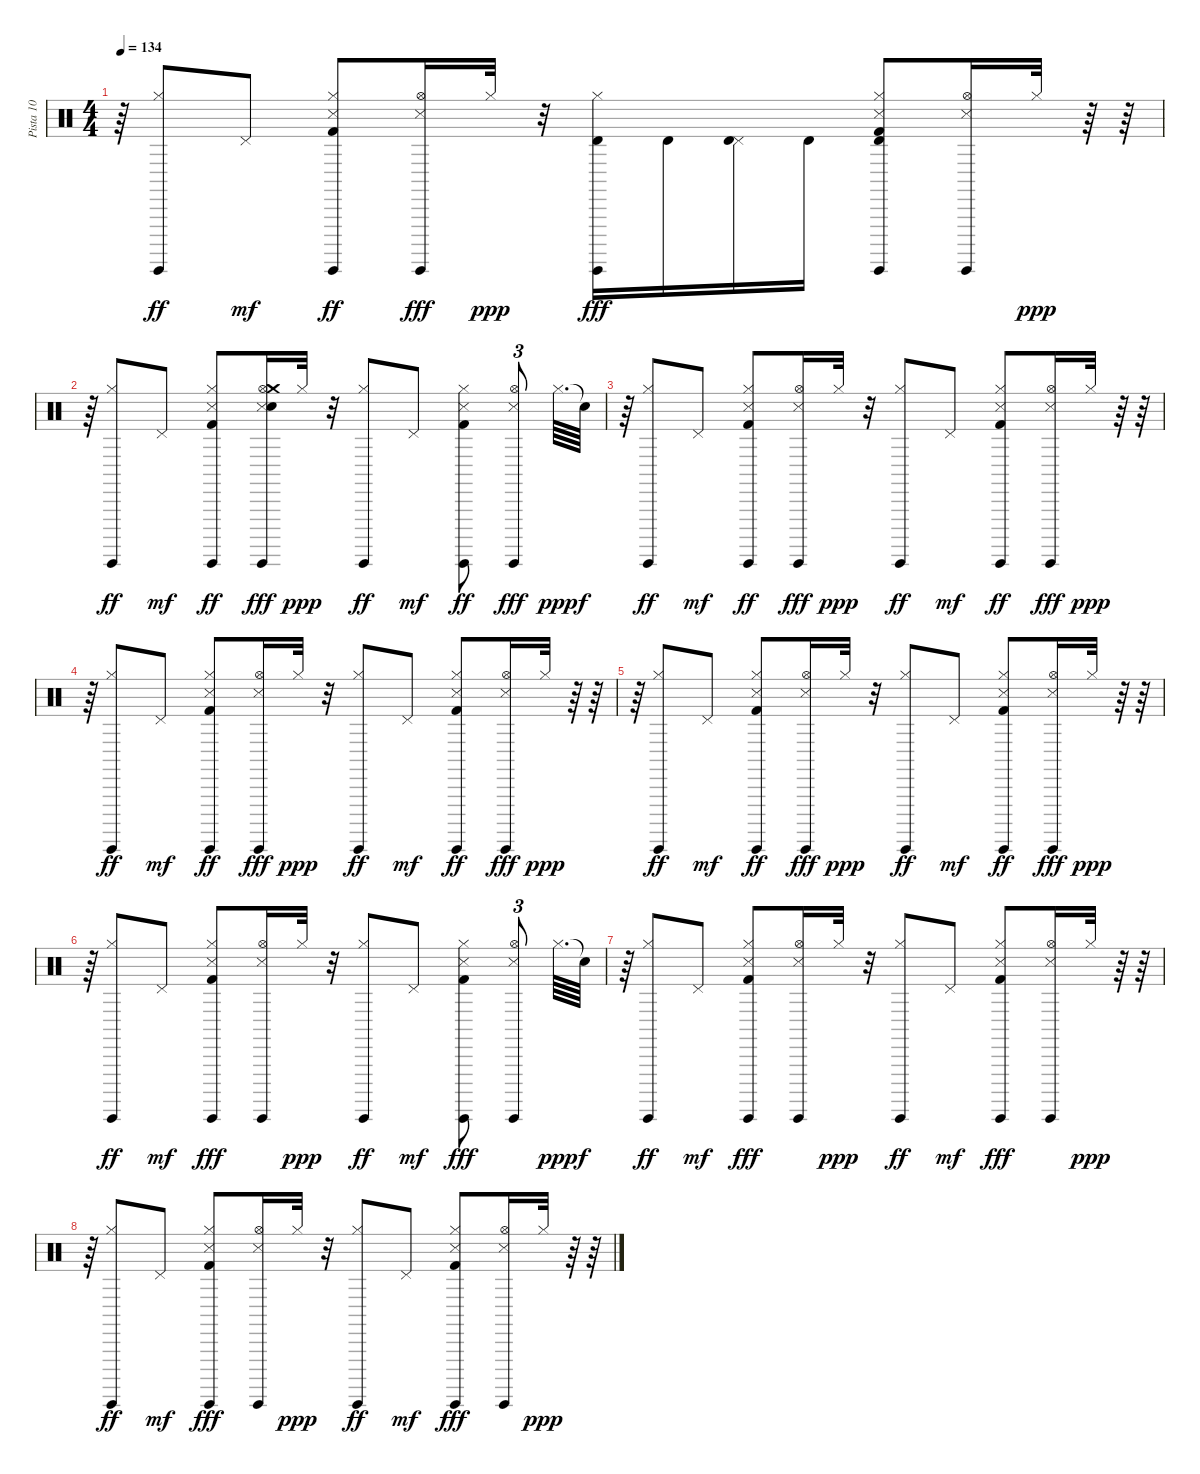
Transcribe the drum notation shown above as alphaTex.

\track ("Pista 10" "Pista 10") {instrument percussion}
\staff {score}
\articulation defaults
\ts (4 4)
\tempo 134
\clef neutral
\ks c
r.64{dy ppp} ("Hi-Hat (closed)" "Guiro (hit)").8{dy ff} "Pedal Hi-Hat (hit)".8{dy mf} ("Hi-Hat (closed)" "Guiro (hit)" "Snare (side stick) 3" "Kick (hit) 2").8{dy ff} ("Hi-Hat (open)" "Guiro (hit)" "Snare (side stick) 3").16{dy fff} "Hi-Hat (closed)".32{dy ppp} r.32 ("Hi-Hat (closed)" "Guiro (hit)" "Timbale high (hit)").16{dy fff} "Timbale high (hit)".16 ("Pedal Hi-Hat (hit)" "Timbale high (hit)").16 "Timbale high (hit)".16 ("Hi-Hat (closed)" "Guiro (hit)" "Snare (side stick) 3" "Kick (hit) 2" "Timbale high (hit)").8 ("Hi-Hat (open)" "Guiro (hit)" "Snare (side stick) 3").16 "Hi-Hat (closed)".32{dy ppp} r.64 r.64 |
r.64 ("Guiro (hit)" "Hi-Hat (closed)").8{dy ff} "Pedal Hi-Hat (hit)".8{dy mf} ("Guiro (hit)" "Hi-Hat (closed)" "Snare (side stick) 3" "Kick (hit) 2").8{dy ff} ("Guiro (hit)" "Hi-Hat (open)" "Snare (side stick) 3" "Electric Snare (hit)" "Crash medium (hit)").16{dy fff} "Hi-Hat (closed)".32{dy ppp} r.32 ("Guiro (hit)" "Hi-Hat (closed)").8{dy ff} "Pedal Hi-Hat (hit)".8{dy mf} ("Guiro (hit)" "Hi-Hat (closed)" "Snare (side stick) 3" "Kick (hit) 2").8{dy ff} ("Guiro (hit)" "Hi-Hat (open)" "Snare (side stick) 3").8{tu (3 2) dy fff} "Hi-Hat (closed)".64{d dy ppp} "Snare (hit)"{t}.64{dy f} |
r.64 ("Guiro (hit)" "Hi-Hat (closed)").8{dy ff} "Pedal Hi-Hat (hit)".8{dy mf} ("Guiro (hit)" "Hi-Hat (closed)" "Snare (side stick) 3" "Kick (hit) 2").8{dy ff} ("Guiro (hit)" "Hi-Hat (open)" "Snare (side stick) 3").16{dy fff} "Hi-Hat (closed)".32{dy ppp} r.32 ("Guiro (hit)" "Hi-Hat (closed)").8{dy ff} "Pedal Hi-Hat (hit)".8{dy mf} ("Guiro (hit)" "Hi-Hat (closed)" "Snare (side stick) 3" "Kick (hit) 2").8{dy ff} ("Guiro (hit)" "Hi-Hat (open)" "Snare (side stick) 3").16{dy fff} "Hi-Hat (closed)".32{dy ppp} r.64 r.64 |
r.64 ("Guiro (hit)" "Hi-Hat (closed)").8{dy ff} "Pedal Hi-Hat (hit)".8{dy mf} ("Guiro (hit)" "Hi-Hat (closed)" "Snare (side stick) 3" "Kick (hit) 2").8{dy ff} ("Guiro (hit)" "Hi-Hat (open)" "Snare (side stick) 3").16{dy fff} "Hi-Hat (closed)".32{dy ppp} r.32 ("Guiro (hit)" "Hi-Hat (closed)").8{dy ff} "Pedal Hi-Hat (hit)".8{dy mf} ("Guiro (hit)" "Hi-Hat (closed)" "Snare (side stick) 3" "Kick (hit) 2").8{dy ff} ("Guiro (hit)" "Hi-Hat (open)" "Snare (side stick) 3").16{dy fff} "Hi-Hat (closed)".32{dy ppp} r.64 r.64 |
r.64 ("Guiro (hit)" "Hi-Hat (closed)").8{dy ff} "Pedal Hi-Hat (hit)".8{dy mf} ("Guiro (hit)" "Hi-Hat (closed)" "Snare (side stick) 3" "Kick (hit) 2").8{dy ff} ("Guiro (hit)" "Hi-Hat (open)" "Snare (side stick) 3").16{dy fff} "Hi-Hat (closed)".32{dy ppp} r.32 ("Guiro (hit)" "Hi-Hat (closed)").8{dy ff} "Pedal Hi-Hat (hit)".8{dy mf} ("Guiro (hit)" "Hi-Hat (closed)" "Snare (side stick) 3" "Kick (hit) 2").8{dy ff} ("Guiro (hit)" "Hi-Hat (open)" "Snare (side stick) 3").16{dy fff} "Hi-Hat (closed)".32{dy ppp} r.64 r.64 |
r.64 ("Guiro (hit)" "Hi-Hat (closed)").8{dy ff} "Pedal Hi-Hat (hit)".8{dy mf} ("Guiro (hit)" "Hi-Hat (closed)" "Kick (hit) 2" "Snare (side stick) 3").8{dy fff} ("Guiro (hit)" "Hi-Hat (open)" "Snare (side stick) 3").16 "Hi-Hat (closed)".32{dy ppp} r.32 ("Guiro (hit)" "Hi-Hat (closed)").8{dy ff} "Pedal Hi-Hat (hit)".8{dy mf} ("Guiro (hit)" "Hi-Hat (closed)" "Kick (hit) 2" "Snare (side stick) 3").8{dy fff} ("Guiro (hit)" "Hi-Hat (open)" "Snare (side stick) 3").8{tu (3 2)} "Hi-Hat (closed)".64{d dy ppp} "Snare (hit)"{t}.64{dy f} |
r.64 ("Guiro (hit)" "Hi-Hat (closed)").8{dy ff} "Pedal Hi-Hat (hit)".8{dy mf} ("Guiro (hit)" "Hi-Hat (closed)" "Kick (hit) 2" "Snare (side stick) 3").8{dy fff} ("Guiro (hit)" "Hi-Hat (open)" "Snare (side stick) 3").16 "Hi-Hat (closed)".32{dy ppp} r.32 ("Guiro (hit)" "Hi-Hat (closed)").8{dy ff} "Pedal Hi-Hat (hit)".8{dy mf} ("Guiro (hit)" "Hi-Hat (closed)" "Kick (hit) 2" "Snare (side stick) 3").8{dy fff} ("Guiro (hit)" "Hi-Hat (open)" "Snare (side stick) 3").16 "Hi-Hat (closed)".32{dy ppp} r.64 r.64 |
r.64 ("Guiro (hit)" "Hi-Hat (closed)").8{dy ff} "Pedal Hi-Hat (hit)".8{dy mf} ("Guiro (hit)" "Hi-Hat (closed)" "Kick (hit) 2" "Snare (side stick) 3").8{dy fff} ("Guiro (hit)" "Hi-Hat (open)" "Snare (side stick) 3").16 "Hi-Hat (closed)".32{dy ppp} r.32 ("Guiro (hit)" "Hi-Hat (closed)").8{dy ff} "Pedal Hi-Hat (hit)".8{dy mf} ("Guiro (hit)" "Hi-Hat (closed)" "Kick (hit) 2" "Snare (side stick) 3").8{dy fff} ("Guiro (hit)" "Hi-Hat (open)" "Snare (side stick) 3").16 "Hi-Hat (closed)".32{dy ppp} r.64 r.64
